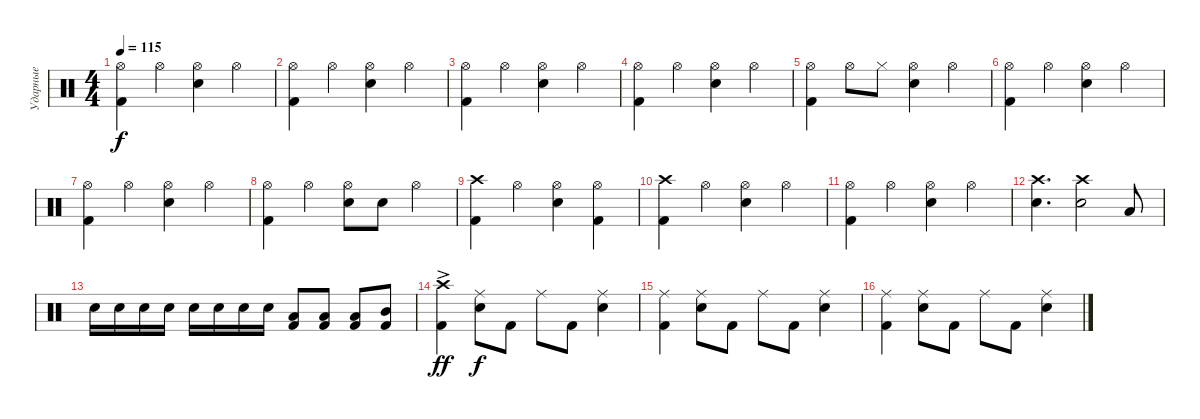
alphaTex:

\track ("Ударные" "Ударные") {instrument percussion}
\staff {score}
\articulation defaults
\ts (4 4)
\tempo 115
\clef neutral
\ks c
("Kick (hit) 2" "Hi-Hat (open)").4{dy f} "Hi-Hat (open)".4 ("Snare (hit) 2" "Hi-Hat (open)").4 "Hi-Hat (open)".4 |
("Kick (hit) 2" "Hi-Hat (open)").4 "Hi-Hat (open)".4 ("Snare (hit) 2" "Hi-Hat (open)").4 "Hi-Hat (open)".4 |
("Kick (hit) 2" "Hi-Hat (open)").4 "Hi-Hat (open)".4 ("Snare (hit) 2" "Hi-Hat (open)").4 "Hi-Hat (open)".4 |
("Kick (hit) 2" "Hi-Hat (open)").4 "Hi-Hat (open)".4 ("Snare (hit) 2" "Hi-Hat (open)").4 "Hi-Hat (open)".4 |
("Kick (hit) 2" "Hi-Hat (open)").4 "Hi-Hat (open)".8 "Hi-Hat (closed)".8 ("Snare (hit) 2" "Hi-Hat (open)").4 "Hi-Hat (open)".4 |
("Kick (hit) 2" "Hi-Hat (open)").4 "Hi-Hat (open)".4 ("Snare (hit) 2" "Hi-Hat (open)").4 "Hi-Hat (open)".4 |
("Kick (hit) 2" "Hi-Hat (open)").4 "Hi-Hat (open)".4 ("Snare (hit) 2" "Hi-Hat (open)").4 "Hi-Hat (open)".4 |
("Kick (hit) 2" "Hi-Hat (open)").4 "Hi-Hat (open)".4 ("Snare (hit) 2" "Hi-Hat (open)").8 "Snare (hit) 2".8 "Hi-Hat (open)".4 |
("Kick (hit) 2" "Crash high (hit)").4 "Hi-Hat (open)".4 ("Snare (hit) 2" "Hi-Hat (open)").4 ("Kick (hit) 2" "Hi-Hat (open)").4 |
("Kick (hit) 2" "Crash high (hit)").4 "Hi-Hat (open)".4 ("Snare (hit) 2" "Hi-Hat (open)").4 "Hi-Hat (open)".4 |
("Kick (hit) 2" "Hi-Hat (open)").4 "Hi-Hat (open)".4 ("Snare (hit) 2" "Hi-Hat (open)").4 "Hi-Hat (open)".4 |
("Snare (hit) 2" "Crash high (hit)").4{d} ("Snare (hit) 2" "Crash high (hit)").2 "Low Tom (hit)".8 |
"Electric Snare (hit)".16 "Electric Snare (hit)".16 "Electric Snare (hit)".16 "Electric Snare (hit)".16 "Electric Snare (hit)".16 "Electric Snare (hit)".16 "Electric Snare (hit)".16 "Electric Snare (hit)".16 ("Kick (hit) 2" "Low Floor Tom (hit)").8 ("Kick (hit) 2" "Low Floor Tom (hit)").8 ("Kick (hit) 2" "Low Floor Tom (hit)").8 ("Kick (hit) 2" "Mid Tom (hit)").8 |
("Kick (hit) 2" "Crash high (hit)"{ac}).4{dy ff} ("Snare (hit) 2" "Ride (middle)").8{dy f} "Kick (hit) 2".8 "Ride (middle)".8 "Kick (hit) 2".8 ("Snare (hit) 2" "Ride (middle)").4 |
("Kick (hit) 2" "Ride (middle)").4 ("Snare (hit) 2" "Ride (middle)").8 "Kick (hit) 2".8 "Ride (middle)".8 "Kick (hit) 2".8 ("Snare (hit) 2" "Ride (middle)").4 |
("Kick (hit) 2" "Ride (middle)").4 ("Snare (hit) 2" "Ride (middle)").8 "Kick (hit) 2".8 "Ride (middle)".8 "Kick (hit) 2".8 ("Snare (hit) 2" "Ride (middle)").4
